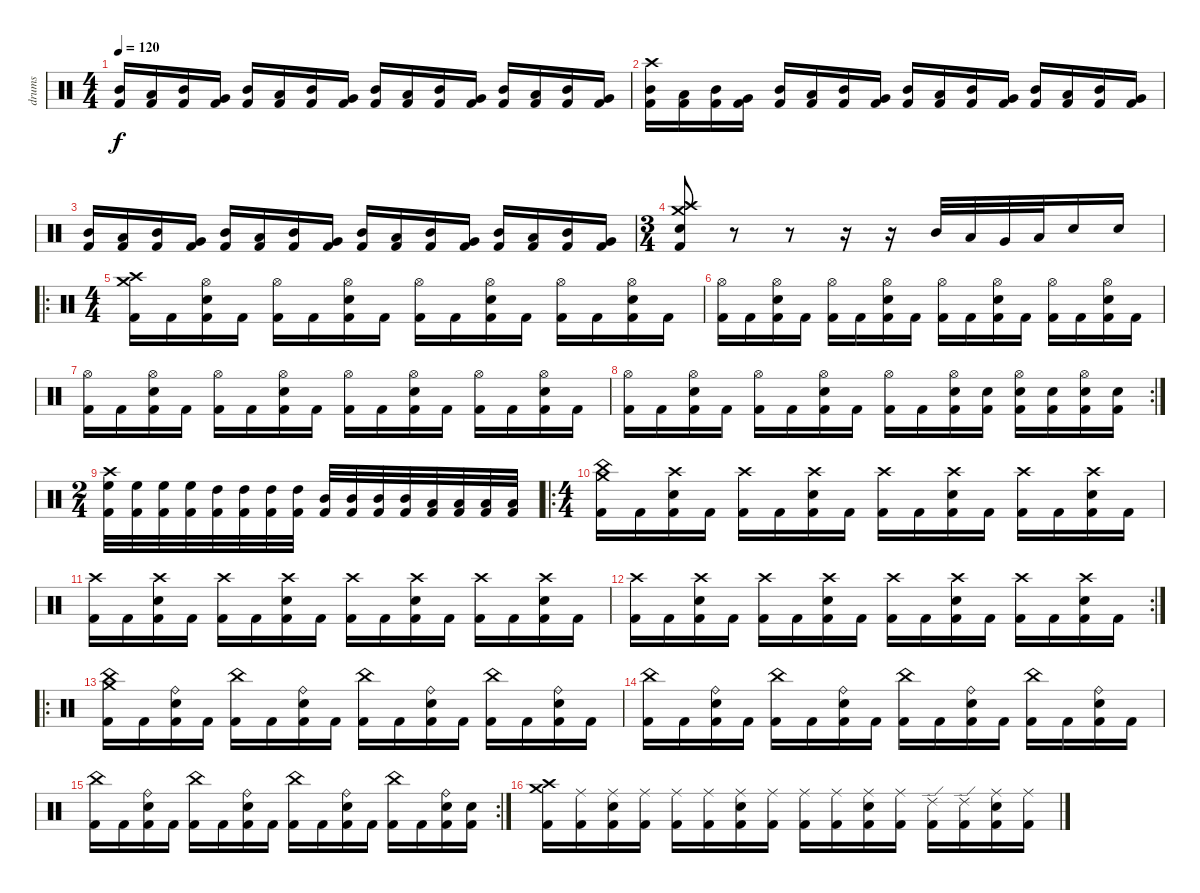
\track ("drums" "drums") {instrument percussion}
\staff {score}
\articulation defaults
\ts (4 4)
\tempo 120
\clef neutral
\ks c
("Mid Tom (hit)" "Kick (hit) 2").16{dy f} ("Low Tom (hit)" "Kick (hit) 2").16 ("Mid Tom (hit)" "Kick (hit) 2").16 ("Very Low Tom (hit)" "Kick (hit) 2").16 ("Mid Tom (hit)" "Kick (hit) 2").16 ("Low Tom (hit)" "Kick (hit) 2").16 ("Mid Tom (hit)" "Kick (hit) 2").16 ("Very Low Tom (hit)" "Kick (hit) 2").16 ("Mid Tom (hit)" "Kick (hit) 2").16 ("Low Tom (hit)" "Kick (hit) 2").16 ("Mid Tom (hit)" "Kick (hit) 2").16 ("Very Low Tom (hit)" "Kick (hit) 2").16 ("Mid Tom (hit)" "Kick (hit) 2").16 ("Low Tom (hit)" "Kick (hit) 2").16 ("Mid Tom (hit)" "Kick (hit) 2").16 ("Very Low Tom (hit)" "Kick (hit) 2").16 |
("Crash high (hit)" "Mid Tom (hit)" "Kick (hit) 2").16 ("Low Tom (hit)" "Kick (hit) 2").16 ("Mid Tom (hit)" "Kick (hit) 2").16 ("Very Low Tom (hit)" "Kick (hit) 2").16 ("Mid Tom (hit)" "Kick (hit) 2").16 ("Low Tom (hit)" "Kick (hit) 2").16 ("Mid Tom (hit)" "Kick (hit) 2").16 ("Very Low Tom (hit)" "Kick (hit) 2").16 ("Mid Tom (hit)" "Kick (hit) 2").16 ("Low Tom (hit)" "Kick (hit) 2").16 ("Mid Tom (hit)" "Kick (hit) 2").16 ("Very Low Tom (hit)" "Kick (hit) 2").16 ("Mid Tom (hit)" "Kick (hit) 2").16 ("Low Tom (hit)" "Kick (hit) 2").16 ("Mid Tom (hit)" "Kick (hit) 2").16 ("Very Low Tom (hit)" "Kick (hit) 2").16 |
("Mid Tom (hit)" "Kick (hit) 2").16 ("Low Tom (hit)" "Kick (hit) 2").16 ("Mid Tom (hit)" "Kick (hit) 2").16 ("Very Low Tom (hit)" "Kick (hit) 2").16 ("Mid Tom (hit)" "Kick (hit) 2").16 ("Low Tom (hit)" "Kick (hit) 2").16 ("Mid Tom (hit)" "Kick (hit) 2").16 ("Very Low Tom (hit)" "Kick (hit) 2").16 ("Mid Tom (hit)" "Kick (hit) 2").16 ("Low Tom (hit)" "Kick (hit) 2").16 ("Mid Tom (hit)" "Kick (hit) 2").16 ("Very Low Tom (hit)" "Kick (hit) 2").16 ("Mid Tom (hit)" "Kick (hit) 2").16 ("Low Tom (hit)" "Kick (hit) 2").16 ("Mid Tom (hit)" "Kick (hit) 2").16 ("Very Low Tom (hit)" "Kick (hit) 2").16 |
\ts (3 4)
("Crash high (hit)" "Crash medium (hit)" "Electric Snare (hit)" "Kick (hit) 2").8 r.8 r.8 r.16 r.16 "Mid Tom (hit)".32 "Low Tom (hit)".32 "Very Low Tom (hit)".32 "Low Floor Tom (hit)".32 "Electric Snare (hit)".16 "Electric Snare (hit)".16 |
\ro
\ts (4 4)
("Crash high (hit)" "Crash medium (hit)" "Kick (hit) 2").16 "Kick (hit) 2".16 ("Hi-Hat (open)" "Electric Snare (hit)" "Kick (hit) 2").16 "Kick (hit) 2".16 ("Hi-Hat (open)" "Kick (hit) 2").16 "Kick (hit) 2".16 ("Hi-Hat (open)" "Electric Snare (hit)" "Kick (hit) 2").16 "Kick (hit) 2".16 ("Hi-Hat (open)" "Kick (hit) 2").16 "Kick (hit) 2".16 ("Hi-Hat (open)" "Electric Snare (hit)" "Kick (hit) 2").16 "Kick (hit) 2".16 ("Hi-Hat (open)" "Kick (hit) 2").16 "Kick (hit) 2".16 ("Hi-Hat (open)" "Electric Snare (hit)" "Kick (hit) 2").16 "Kick (hit) 2".16 |
("Hi-Hat (open)" "Kick (hit) 2").16 "Kick (hit) 2".16 ("Hi-Hat (open)" "Electric Snare (hit)" "Kick (hit) 2").16 "Kick (hit) 2".16 ("Hi-Hat (open)" "Kick (hit) 2").16 "Kick (hit) 2".16 ("Hi-Hat (open)" "Electric Snare (hit)" "Kick (hit) 2").16 "Kick (hit) 2".16 ("Hi-Hat (open)" "Kick (hit) 2").16 "Kick (hit) 2".16 ("Hi-Hat (open)" "Electric Snare (hit)" "Kick (hit) 2").16 "Kick (hit) 2".16 ("Hi-Hat (open)" "Kick (hit) 2").16 "Kick (hit) 2".16 ("Hi-Hat (open)" "Electric Snare (hit)" "Kick (hit) 2").16 "Kick (hit) 2".16 |
("Hi-Hat (open)" "Kick (hit) 2").16 "Kick (hit) 2".16 ("Hi-Hat (open)" "Electric Snare (hit)" "Kick (hit) 2").16 "Kick (hit) 2".16 ("Hi-Hat (open)" "Kick (hit) 2").16 "Kick (hit) 2".16 ("Hi-Hat (open)" "Electric Snare (hit)" "Kick (hit) 2").16 "Kick (hit) 2".16 ("Hi-Hat (open)" "Kick (hit) 2").16 "Kick (hit) 2".16 ("Hi-Hat (open)" "Electric Snare (hit)" "Kick (hit) 2").16 "Kick (hit) 2".16 ("Hi-Hat (open)" "Kick (hit) 2").16 "Kick (hit) 2".16 ("Hi-Hat (open)" "Electric Snare (hit)" "Kick (hit) 2").16 "Kick (hit) 2".16 |
\rc 2
("Hi-Hat (open)" "Kick (hit) 2").16 "Kick (hit) 2".16 ("Hi-Hat (open)" "Electric Snare (hit)" "Kick (hit) 2").16 "Kick (hit) 2".16 ("Hi-Hat (open)" "Kick (hit) 2").16 "Kick (hit) 2".16 ("Hi-Hat (open)" "Electric Snare (hit)" "Kick (hit) 2").16 "Kick (hit) 2".16 ("Hi-Hat (open)" "Kick (hit) 2").16 "Kick (hit) 2".16 ("Hi-Hat (open)" "Electric Snare (hit)" "Kick (hit) 2").16 ("Electric Snare (hit)" "Kick (hit) 2").16 ("Hi-Hat (open)" "Electric Snare (hit)" "Kick (hit) 2").16 ("Electric Snare (hit)" "Kick (hit) 2").16 ("Hi-Hat (open)" "Electric Snare (hit)" "Kick (hit) 2").16 ("Electric Snare (hit)" "Kick (hit) 2").16 |
\ts (2 4)
("Crash high (hit)" "High Floor Tom (hit)" "Kick (hit) 2").32 ("High Floor Tom (hit)" "Kick (hit) 2").32 ("High Floor Tom (hit)" "Kick (hit) 2").32 ("High Floor Tom (hit)" "Kick (hit) 2").32 ("High Tom (hit)" "Kick (hit) 2").32 ("High Tom (hit)" "Kick (hit) 2").32 ("High Tom (hit)" "Kick (hit) 2").32 ("High Tom (hit)" "Kick (hit) 2").32 ("Mid Tom (hit)" "Kick (hit) 2").32 ("Mid Tom (hit)" "Kick (hit) 2").32 ("Mid Tom (hit)" "Kick (hit) 2").32 ("Mid Tom (hit)" "Kick (hit) 2").32 ("Low Tom (hit)" "Kick (hit) 2").32 ("Low Tom (hit)" "Kick (hit) 2").32 ("Low Tom (hit)" "Kick (hit) 2").32 ("Low Tom (hit)" "Kick (hit) 2").32 |
\ro
\ts (4 4)
("Crash medium (hit)" "China (hit)" "Kick (hit) 2").16 "Kick (hit) 2".16 ("Crash high (hit)" "Electric Snare (hit)" "Kick (hit) 2").16 "Kick (hit) 2".16 ("Crash high (hit)" "Kick (hit) 2").16 "Kick (hit) 2".16 ("Crash high (hit)" "Electric Snare (hit)" "Kick (hit) 2").16 "Kick (hit) 2".16 ("Crash high (hit)" "Kick (hit) 2").16 "Kick (hit) 2".16 ("Crash high (hit)" "Electric Snare (hit)" "Kick (hit) 2").16 "Kick (hit) 2".16 ("Crash high (hit)" "Kick (hit) 2").16 "Kick (hit) 2".16 ("Crash high (hit)" "Electric Snare (hit)" "Kick (hit) 2").16 "Kick (hit) 2".16 |
("Crash high (hit)" "Kick (hit) 2").16 "Kick (hit) 2".16 ("Crash high (hit)" "Electric Snare (hit)" "Kick (hit) 2").16 "Kick (hit) 2".16 ("Crash high (hit)" "Kick (hit) 2").16 "Kick (hit) 2".16 ("Crash high (hit)" "Electric Snare (hit)" "Kick (hit) 2").16 "Kick (hit) 2".16 ("Crash high (hit)" "Kick (hit) 2").16 "Kick (hit) 2".16 ("Crash high (hit)" "Electric Snare (hit)" "Kick (hit) 2").16 "Kick (hit) 2".16 ("Crash high (hit)" "Kick (hit) 2").16 "Kick (hit) 2".16 ("Crash high (hit)" "Electric Snare (hit)" "Kick (hit) 2").16 "Kick (hit) 2".16 |
\rc 2
("Crash high (hit)" "Kick (hit) 2").16 "Kick (hit) 2".16 ("Crash high (hit)" "Electric Snare (hit)" "Kick (hit) 2").16 "Kick (hit) 2".16 ("Crash high (hit)" "Kick (hit) 2").16 "Kick (hit) 2".16 ("Crash high (hit)" "Electric Snare (hit)" "Kick (hit) 2").16 "Kick (hit) 2".16 ("Crash high (hit)" "Kick (hit) 2").16 "Kick (hit) 2".16 ("Crash high (hit)" "Electric Snare (hit)" "Kick (hit) 2").16 "Kick (hit) 2".16 ("Crash high (hit)" "Kick (hit) 2").16 "Kick (hit) 2".16 ("Crash high (hit)" "Electric Snare (hit)" "Kick (hit) 2").16 "Kick (hit) 2".16 |
\ro
("Crash medium (hit)" "China (hit)" "Kick (hit) 2").16 "Kick (hit) 2".16 ("Ride (bell)" "Electric Snare (hit)" "Kick (hit) 2").16 "Kick (hit) 2".16 ("China (hit)" "Kick (hit) 2").16 "Kick (hit) 2".16 ("Ride (bell)" "Electric Snare (hit)" "Kick (hit) 2").16 "Kick (hit) 2".16 ("China (hit)" "Kick (hit) 2").16 "Kick (hit) 2".16 ("Ride (bell)" "Electric Snare (hit)" "Kick (hit) 2").16 "Kick (hit) 2".16 ("China (hit)" "Kick (hit) 2").16 "Kick (hit) 2".16 ("Ride (bell)" "Electric Snare (hit)" "Kick (hit) 2").16 "Kick (hit) 2".16 |
("China (hit)" "Kick (hit) 2").16 "Kick (hit) 2".16 ("Ride (bell)" "Electric Snare (hit)" "Kick (hit) 2").16 "Kick (hit) 2".16 ("China (hit)" "Kick (hit) 2").16 "Kick (hit) 2".16 ("Ride (bell)" "Electric Snare (hit)" "Kick (hit) 2").16 "Kick (hit) 2".16 ("China (hit)" "Kick (hit) 2").16 "Kick (hit) 2".16 ("Ride (bell)" "Electric Snare (hit)" "Kick (hit) 2").16 "Kick (hit) 2".16 ("China (hit)" "Kick (hit) 2").16 "Kick (hit) 2".16 ("Ride (bell)" "Electric Snare (hit)" "Kick (hit) 2").16 "Kick (hit) 2".16 |
\rc 2
("China (hit)" "Kick (hit) 2").16 "Kick (hit) 2".16 ("Ride (bell)" "Electric Snare (hit)" "Kick (hit) 2").16 "Kick (hit) 2".16 ("China (hit)" "Kick (hit) 2").16 "Kick (hit) 2".16 ("Ride (bell)" "Electric Snare (hit)" "Kick (hit) 2").16 "Kick (hit) 2".16 ("China (hit)" "Kick (hit) 2").16 "Kick (hit) 2".16 ("Ride (bell)" "Electric Snare (hit)" "Kick (hit) 2").16 "Kick (hit) 2".16 ("China (hit)" "Kick (hit) 2").16 "Kick (hit) 2".16 ("Ride (bell)" "Electric Snare (hit)" "Kick (hit) 2").16 ("Electric Snare (hit)" "Kick (hit) 2").16 |
("Crash medium (hit)" "Crash high (hit)" "Kick (hit) 2").16 ("Ride (middle)" "Kick (hit) 2").16 ("Ride (middle)" "Electric Snare (hit)" "Kick (hit) 2").16 ("Ride (middle)" "Kick (hit) 2").16 ("Ride (middle)" "Kick (hit) 2").16 ("Ride (middle)" "Kick (hit) 2").16 ("Ride (middle)" "Electric Snare (hit)" "Kick (hit) 2").16 ("Ride (middle)" "Kick (hit) 2").16 ("Ride (middle)" "Kick (hit) 2").16 ("Ride (middle)" "Kick (hit) 2").16 ("Ride (middle)" "Electric Snare (hit)" "Kick (hit) 2").16 ("Ride (middle)" "Kick (hit) 2").16 ("Ride (edge) 2" "Kick (hit) 2").16 ("Ride (edge) 2" "Kick (hit) 2").16 ("Ride (middle)" "Electric Snare (hit)" "Kick (hit) 2").16 ("Ride (middle)" "Kick (hit) 2").16
